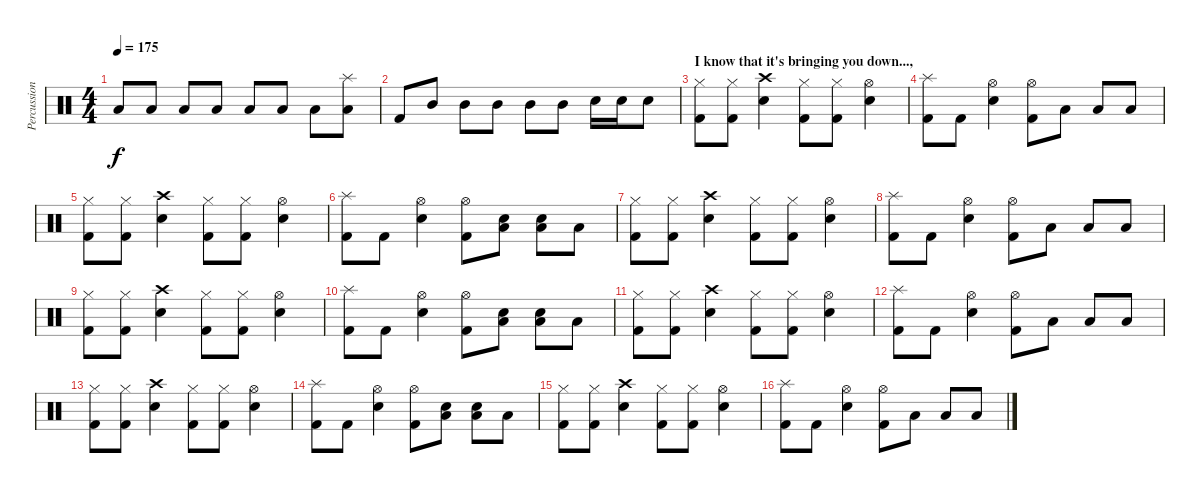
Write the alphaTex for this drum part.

\track ("Percussion" "Percussion") {instrument percussion}
\staff {score}
\articulation defaults
\ts (4 4)
\tempo 175
\clef neutral
\ks c "Low Tom (hit)".8{dy f} "Low Tom (hit)".8 "Low Tom (hit)".8 "Low Tom (hit)".8 "Low Tom (hit)".8 "Low Tom (hit)".8 "Low Tom (hit)".8
("Splash (hit)" "Low Tom (hit)").8 |
"Kick (hit) 2".8 "Mid Tom (hit)".8 "Mid Tom (hit)".8 "Mid Tom (hit)".8 "Mid Tom (hit)".8 "Mid Tom (hit)".8 "Snare (hit) 2".16 "Snare (hit) 2".16 "Snare (hit) 2".8 |
\section ("" "I know that it's bringing you down...,")
("Hi-Hat (closed)" "Kick (hit) 2").8 ("Hi-Hat (closed)" "Kick (hit) 2").8 ("Crash high (hit)" "Snare (hit) 2").4 ("Hi-Hat (closed)" "Kick (hit) 2").8 ("Hi-Hat (closed)" "Kick (hit) 2").8 ("Hi-Hat (open)" "Snare (hit) 2").4 |
("Splash (hit)" "Kick (hit) 2").8 "Kick (hit) 2".8 ("Hi-Hat (open)" "Snare (hit) 2").4 ("Hi-Hat (open)" "Kick (hit) 2").8 "Low Tom (hit)".8 "Low Tom (hit)".8 "Low Tom (hit)".8 |
("Hi-Hat (closed)" "Kick (hit) 2").8 ("Hi-Hat (closed)" "Kick (hit) 2").8 ("Crash high (hit)" "Snare (hit) 2").4 ("Hi-Hat (closed)" "Kick (hit) 2").8 ("Hi-Hat (closed)" "Kick (hit) 2").8 ("Hi-Hat (open)" "Snare (hit) 2").4 |
("Splash (hit)" "Kick (hit) 2").8 "Kick (hit) 2".8 ("Hi-Hat (open)" "Snare (hit) 2").4 ("Hi-Hat (open)" "Kick (hit) 2").8 ("Low Tom (hit)" "Snare (hit) 2").8 ("Low Tom (hit)" "Snare (hit) 2").8 "Low Tom (hit)".8 |
("Hi-Hat (closed)" "Kick (hit) 2").8 ("Hi-Hat (closed)" "Kick (hit) 2").8 ("Crash high (hit)" "Snare (hit) 2").4 ("Hi-Hat (closed)" "Kick (hit) 2").8 ("Hi-Hat (closed)" "Kick (hit) 2").8 ("Hi-Hat (open)" "Snare (hit) 2").4 |
("Splash (hit)" "Kick (hit) 2").8 "Kick (hit) 2".8 ("Hi-Hat (open)" "Snare (hit) 2").4 ("Hi-Hat (open)" "Kick (hit) 2").8 "Low Tom (hit)".8 "Low Tom (hit)".8 "Low Tom (hit)".8 |
("Hi-Hat (closed)" "Kick (hit) 2").8 ("Hi-Hat (closed)" "Kick (hit) 2").8 ("Crash high (hit)" "Snare (hit) 2").4 ("Hi-Hat (closed)" "Kick (hit) 2").8 ("Hi-Hat (closed)" "Kick (hit) 2").8 ("Hi-Hat (open)" "Snare (hit) 2").4 |
("Splash (hit)" "Kick (hit) 2").8 "Kick (hit) 2".8 ("Hi-Hat (open)" "Snare (hit) 2").4 ("Hi-Hat (open)" "Kick (hit) 2").8 ("Low Tom (hit)" "Snare (hit) 2").8 ("Low Tom (hit)" "Snare (hit) 2").8 "Low Tom (hit)".8 |
("Hi-Hat (closed)" "Kick (hit) 2").8 ("Hi-Hat (closed)" "Kick (hit) 2").8 ("Crash high (hit)" "Snare (hit) 2").4 ("Hi-Hat (closed)" "Kick (hit) 2").8 ("Hi-Hat (closed)" "Kick (hit) 2").8 ("Hi-Hat (open)" "Snare (hit) 2").4 |
("Splash (hit)" "Kick (hit) 2").8 "Kick (hit) 2".8 ("Hi-Hat (open)" "Snare (hit) 2").4 ("Hi-Hat (open)" "Kick (hit) 2").8 "Low Tom (hit)".8 "Low Tom (hit)".8 "Low Tom (hit)".8 |
("Hi-Hat (closed)" "Kick (hit) 2").8 ("Hi-Hat (closed)" "Kick (hit) 2").8 ("Crash high (hit)" "Snare (hit) 2").4 ("Hi-Hat (closed)" "Kick (hit) 2").8 ("Hi-Hat (closed)" "Kick (hit) 2").8 ("Hi-Hat (open)" "Snare (hit) 2").4 |
("Splash (hit)" "Kick (hit) 2").8 "Kick (hit) 2".8 ("Hi-Hat (open)" "Snare (hit) 2").4 ("Hi-Hat (open)" "Kick (hit) 2").8 ("Low Tom (hit)" "Snare (hit) 2").8 ("Low Tom (hit)" "Snare (hit) 2").8 "Low Tom (hit)".8 |
("Hi-Hat (closed)" "Kick (hit) 2").8 ("Hi-Hat (closed)" "Kick (hit) 2").8 ("Crash high (hit)" "Snare (hit) 2").4 ("Hi-Hat (closed)" "Kick (hit) 2").8 ("Hi-Hat (closed)" "Kick (hit) 2").8 ("Hi-Hat (open)" "Snare (hit) 2").4 |
("Splash (hit)" "Kick (hit) 2").8 "Kick (hit) 2".8 ("Hi-Hat (open)" "Snare (hit) 2").4 ("Hi-Hat (open)" "Kick (hit) 2").8 "Low Tom (hit)".8 "Low Tom (hit)".8 "Low Tom (hit)".8
